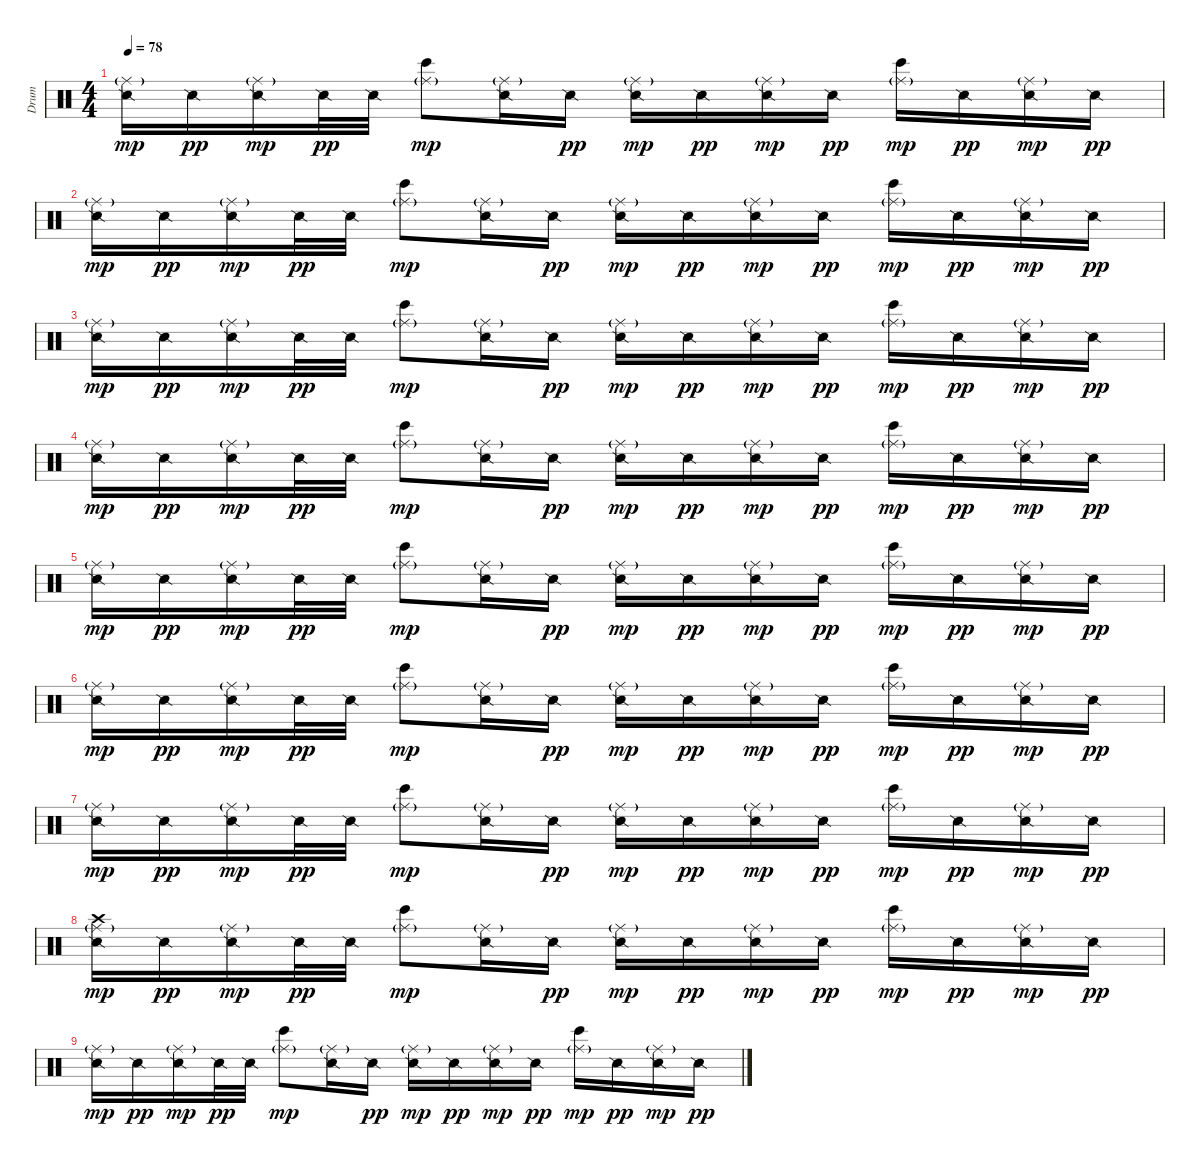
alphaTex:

\track ("Drum" "Drum") {instrument percussion}
\staff {score}
\articulation defaults
\ts (4 4)
\tempo 78
\clef neutral
\ks c
("Snare (side stick) 2" "Ride (middle)"{g}).16{dy mp} "Snare (side stick) 2".16{dy pp} ("Snare (side stick) 2" "Ride (middle)"{g}).16{dy mp} "Snare (side stick) 2".32{dy pp} "Snare (side stick) 2".32 ("Bongo High (hit)" "Ride (middle)"{g}).8{dy mp} ("Snare (side stick) 2" "Ride (middle)"{g}).16 "Snare (side stick) 2".16{dy pp} ("Snare (side stick) 2" "Ride (middle)"{g}).16{dy mp} "Snare (side stick) 2".16{dy pp} ("Snare (side stick) 2" "Ride (middle)"{g}).16{dy mp} "Snare (side stick) 2".16{dy pp} ("Bongo High (hit)" "Ride (middle)"{g}).16{dy mp} "Snare (side stick) 2".16{dy pp} ("Snare (side stick) 2" "Ride (middle)"{g}).16{dy mp} "Snare (side stick) 2".16{dy pp} |
("Snare (side stick) 2" "Ride (middle)"{g}).16{dy mp} "Snare (side stick) 2".16{dy pp} ("Snare (side stick) 2" "Ride (middle)"{g}).16{dy mp} "Snare (side stick) 2".32{dy pp} "Snare (side stick) 2".32 ("Bongo High (hit)" "Ride (middle)"{g}).8{dy mp} ("Snare (side stick) 2" "Ride (middle)"{g}).16 "Snare (side stick) 2".16{dy pp} ("Snare (side stick) 2" "Ride (middle)"{g}).16{dy mp} "Snare (side stick) 2".16{dy pp} ("Snare (side stick) 2" "Ride (middle)"{g}).16{dy mp} "Snare (side stick) 2".16{dy pp} ("Bongo High (hit)" "Ride (middle)"{g}).16{dy mp} "Snare (side stick) 2".16{dy pp} ("Snare (side stick) 2" "Ride (middle)"{g}).16{dy mp} "Snare (side stick) 2".16{dy pp} |
("Snare (side stick) 2" "Ride (middle)"{g}).16{dy mp} "Snare (side stick) 2".16{dy pp} ("Snare (side stick) 2" "Ride (middle)"{g}).16{dy mp} "Snare (side stick) 2".32{dy pp} "Snare (side stick) 2".32 ("Bongo High (hit)" "Ride (middle)"{g}).8{dy mp} ("Snare (side stick) 2" "Ride (middle)"{g}).16 "Snare (side stick) 2".16{dy pp} ("Snare (side stick) 2" "Ride (middle)"{g}).16{dy mp} "Snare (side stick) 2".16{dy pp} ("Snare (side stick) 2" "Ride (middle)"{g}).16{dy mp} "Snare (side stick) 2".16{dy pp} ("Bongo High (hit)" "Ride (middle)"{g}).16{dy mp} "Snare (side stick) 2".16{dy pp} ("Snare (side stick) 2" "Ride (middle)"{g}).16{dy mp} "Snare (side stick) 2".16{dy pp} |
("Snare (side stick) 2" "Ride (middle)"{g}).16{dy mp} "Snare (side stick) 2".16{dy pp} ("Snare (side stick) 2" "Ride (middle)"{g}).16{dy mp} "Snare (side stick) 2".32{dy pp} "Snare (side stick) 2".32 ("Bongo High (hit)" "Ride (middle)"{g}).8{dy mp} ("Snare (side stick) 2" "Ride (middle)"{g}).16 "Snare (side stick) 2".16{dy pp} ("Snare (side stick) 2" "Ride (middle)"{g}).16{dy mp} "Snare (side stick) 2".16{dy pp} ("Snare (side stick) 2" "Ride (middle)"{g}).16{dy mp} "Snare (side stick) 2".16{dy pp} ("Bongo High (hit)" "Ride (middle)"{g}).16{dy mp} "Snare (side stick) 2".16{dy pp} ("Snare (side stick) 2" "Ride (middle)"{g}).16{dy mp} "Snare (side stick) 2".16{dy pp} |
("Snare (side stick) 2" "Ride (middle)"{g}).16{dy mp} "Snare (side stick) 2".16{dy pp} ("Snare (side stick) 2" "Ride (middle)"{g}).16{dy mp} "Snare (side stick) 2".32{dy pp} "Snare (side stick) 2".32 ("Bongo High (hit)" "Ride (middle)"{g}).8{dy mp} ("Snare (side stick) 2" "Ride (middle)"{g}).16 "Snare (side stick) 2".16{dy pp} ("Snare (side stick) 2" "Ride (middle)"{g}).16{dy mp} "Snare (side stick) 2".16{dy pp} ("Snare (side stick) 2" "Ride (middle)"{g}).16{dy mp} "Snare (side stick) 2".16{dy pp} ("Bongo High (hit)" "Ride (middle)"{g}).16{dy mp} "Snare (side stick) 2".16{dy pp} ("Snare (side stick) 2" "Ride (middle)"{g}).16{dy mp} "Snare (side stick) 2".16{dy pp} |
("Snare (side stick) 2" "Ride (middle)"{g}).16{dy mp} "Snare (side stick) 2".16{dy pp} ("Snare (side stick) 2" "Ride (middle)"{g}).16{dy mp} "Snare (side stick) 2".32{dy pp} "Snare (side stick) 2".32 ("Bongo High (hit)" "Ride (middle)"{g}).8{dy mp} ("Snare (side stick) 2" "Ride (middle)"{g}).16 "Snare (side stick) 2".16{dy pp} ("Snare (side stick) 2" "Ride (middle)"{g}).16{dy mp} "Snare (side stick) 2".16{dy pp} ("Snare (side stick) 2" "Ride (middle)"{g}).16{dy mp} "Snare (side stick) 2".16{dy pp} ("Bongo High (hit)" "Ride (middle)"{g}).16{dy mp} "Snare (side stick) 2".16{dy pp} ("Snare (side stick) 2" "Ride (middle)"{g}).16{dy mp} "Snare (side stick) 2".16{dy pp} |
("Snare (side stick) 2" "Ride (middle)"{g}).16{dy mp} "Snare (side stick) 2".16{dy pp} ("Snare (side stick) 2" "Ride (middle)"{g}).16{dy mp} "Snare (side stick) 2".32{dy pp} "Snare (side stick) 2".32 ("Bongo High (hit)" "Ride (middle)"{g}).8{dy mp} ("Snare (side stick) 2" "Ride (middle)"{g}).16 "Snare (side stick) 2".16{dy pp} ("Snare (side stick) 2" "Ride (middle)"{g}).16{dy mp} "Snare (side stick) 2".16{dy pp} ("Snare (side stick) 2" "Ride (middle)"{g}).16{dy mp} "Snare (side stick) 2".16{dy pp} ("Bongo High (hit)" "Ride (middle)"{g}).16{dy mp} "Snare (side stick) 2".16{dy pp} ("Snare (side stick) 2" "Ride (middle)"{g}).16{dy mp} "Snare (side stick) 2".16{dy pp} |
("Snare (side stick) 2" "Ride (middle)"{g} "Crash high (hit)").16{dy mp} "Snare (side stick) 2".16{dy pp} ("Snare (side stick) 2" "Ride (middle)"{g}).16{dy mp} "Snare (side stick) 2".32{dy pp} "Snare (side stick) 2".32 ("Bongo High (hit)" "Ride (middle)"{g}).8{dy mp} ("Snare (side stick) 2" "Ride (middle)"{g}).16 "Snare (side stick) 2".16{dy pp} ("Snare (side stick) 2" "Ride (middle)"{g}).16{dy mp} "Snare (side stick) 2".16{dy pp} ("Snare (side stick) 2" "Ride (middle)"{g}).16{dy mp} "Snare (side stick) 2".16{dy pp} ("Bongo High (hit)" "Ride (middle)"{g}).16{dy mp} "Snare (side stick) 2".16{dy pp} ("Snare (side stick) 2" "Ride (middle)"{g}).16{dy mp} "Snare (side stick) 2".16{dy pp} |
("Snare (side stick) 2" "Ride (middle)"{g}).16{dy mp} "Snare (side stick) 2".16{dy pp} ("Snare (side stick) 2" "Ride (middle)"{g}).16{dy mp} "Snare (side stick) 2".32{dy pp} "Snare (side stick) 2".32 ("Bongo High (hit)" "Ride (middle)"{g}).8{dy mp} ("Snare (side stick) 2" "Ride (middle)"{g}).16 "Snare (side stick) 2".16{dy pp} ("Snare (side stick) 2" "Ride (middle)"{g}).16{dy mp} "Snare (side stick) 2".16{dy pp} ("Snare (side stick) 2" "Ride (middle)"{g}).16{dy mp} "Snare (side stick) 2".16{dy pp} ("Bongo High (hit)" "Ride (middle)"{g}).16{dy mp} "Snare (side stick) 2".16{dy pp} ("Snare (side stick) 2" "Ride (middle)"{g}).16{dy mp} "Snare (side stick) 2".16{dy pp}
